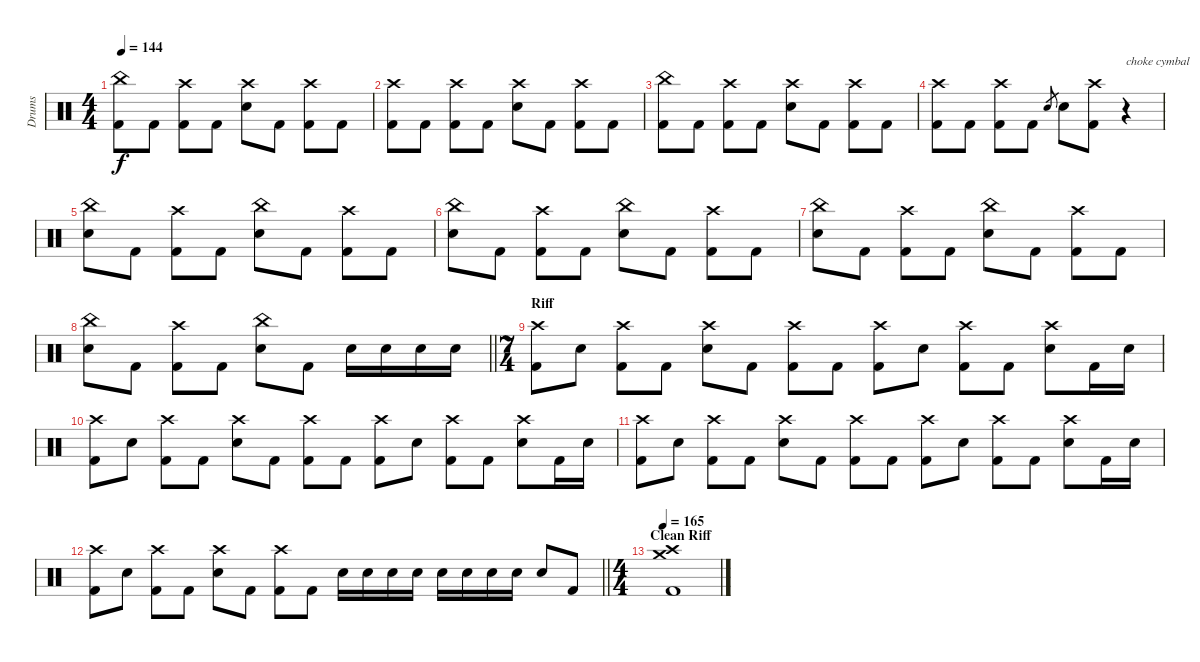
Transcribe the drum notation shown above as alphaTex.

\track ("Drums" "Drums") {instrument percussion}
\staff {score}
\articulation defaults
\ts (4 4)
\tempo 144
\clef neutral
\ks c
("China (hit)" "Kick (hit) 2").8{dy f} "Kick (hit) 2".8 ("Crash high (hit)" "Kick (hit) 2").8 "Kick (hit) 2".8 ("Crash high (hit)" "Electric Snare (hit)").8 "Kick (hit) 2".8 ("Crash high (hit)" "Kick (hit) 2").8 "Kick (hit) 2".8 |
("Crash high (hit)" "Kick (hit) 2").8 "Kick (hit) 2".8 ("Crash high (hit)" "Kick (hit) 2").8 "Kick (hit) 2".8 ("Crash high (hit)" "Electric Snare (hit)").8 "Kick (hit) 2".8 ("Crash high (hit)" "Kick (hit) 2").8 "Kick (hit) 2".8 |
("China (hit)" "Kick (hit) 2").8 "Kick (hit) 2".8 ("Crash high (hit)" "Kick (hit) 2").8 "Kick (hit) 2".8 ("Crash high (hit)" "Electric Snare (hit)").8 "Kick (hit) 2".8 ("Crash high (hit)" "Kick (hit) 2").8 "Kick (hit) 2".8 |
("Crash high (hit)" "Kick (hit) 2").8 "Kick (hit) 2".8 ("Crash high (hit)" "Kick (hit) 2").8 "Kick (hit) 2".8 "Electric Snare (hit)".8{gr} "Electric Snare (hit)".8 ("Crash high (hit)" "Kick (hit) 2").8 r.4{txt "choke cymbal" volume 0} |
("China (hit)" "Electric Snare (hit)").8{volume 14} "Kick (hit) 2".8 ("Crash high (hit)" "Kick (hit) 2").8 "Kick (hit) 2".8 ("China (hit)" "Electric Snare (hit)").8 "Kick (hit) 2".8 ("Crash high (hit)" "Kick (hit) 2").8 "Kick (hit) 2".8 |
("China (hit)" "Electric Snare (hit)").8 "Kick (hit) 2".8 ("Crash high (hit)" "Kick (hit) 2").8 "Kick (hit) 2".8 ("China (hit)" "Electric Snare (hit)").8 "Kick (hit) 2".8 ("Crash high (hit)" "Kick (hit) 2").8 "Kick (hit) 2".8 |
("China (hit)" "Electric Snare (hit)").8 "Kick (hit) 2".8 ("Crash high (hit)" "Kick (hit) 2").8 "Kick (hit) 2".8 ("China (hit)" "Electric Snare (hit)").8 "Kick (hit) 2".8 ("Crash high (hit)" "Kick (hit) 2").8 "Kick (hit) 2".8 |
\barLineRight lightlight
("China (hit)" "Electric Snare (hit)").8 "Kick (hit) 2".8 ("Crash high (hit)" "Kick (hit) 2").8 "Kick (hit) 2".8 ("China (hit)" "Electric Snare (hit)").8 "Kick (hit) 2".8 "Electric Snare (hit)".16 "Electric Snare (hit)".16 "Electric Snare (hit)".16 "Electric Snare (hit)".16 |
\ts (7 4)
\section ("" "Riff")
("Crash high (hit)" "Kick (hit) 2").8 "Electric Snare (hit)".8 ("Crash high (hit)" "Kick (hit) 2").8 "Kick (hit) 2".8 ("Crash high (hit)" "Electric Snare (hit)").8 "Kick (hit) 2".8 ("Crash high (hit)" "Kick (hit) 2").8 "Kick (hit) 2".8 ("Crash high (hit)" "Kick (hit) 2").8 "Electric Snare (hit)".8 ("Crash high (hit)" "Kick (hit) 2").8 "Kick (hit) 2".8 ("Crash high (hit)" "Electric Snare (hit)").8 "Kick (hit) 2".16 "Electric Snare (hit)".16 |
("Crash high (hit)" "Kick (hit) 2").8 "Electric Snare (hit)".8 ("Crash high (hit)" "Kick (hit) 2").8 "Kick (hit) 2".8 ("Crash high (hit)" "Electric Snare (hit)").8 "Kick (hit) 2".8 ("Crash high (hit)" "Kick (hit) 2").8 "Kick (hit) 2".8 ("Crash high (hit)" "Kick (hit) 2").8 "Electric Snare (hit)".8 ("Crash high (hit)" "Kick (hit) 2").8 "Kick (hit) 2".8 ("Crash high (hit)" "Electric Snare (hit)").8 "Kick (hit) 2".16 "Electric Snare (hit)".16 |
("Crash high (hit)" "Kick (hit) 2").8 "Electric Snare (hit)".8 ("Crash high (hit)" "Kick (hit) 2").8 "Kick (hit) 2".8 ("Crash high (hit)" "Electric Snare (hit)").8 "Kick (hit) 2".8 ("Crash high (hit)" "Kick (hit) 2").8 "Kick (hit) 2".8 ("Crash high (hit)" "Kick (hit) 2").8 "Electric Snare (hit)".8 ("Crash high (hit)" "Kick (hit) 2").8 "Kick (hit) 2".8 ("Crash high (hit)" "Electric Snare (hit)").8 "Kick (hit) 2".16 "Electric Snare (hit)".16 |
\barLineRight lightlight
("Crash high (hit)" "Kick (hit) 2").8 "Electric Snare (hit)".8 ("Crash high (hit)" "Kick (hit) 2").8 "Kick (hit) 2".8 ("Crash high (hit)" "Electric Snare (hit)").8 "Kick (hit) 2".8 ("Crash high (hit)" "Kick (hit) 2").8 "Kick (hit) 2".8 "Electric Snare (hit)".16 "Electric Snare (hit)".16 "Electric Snare (hit)".16 "Electric Snare (hit)".16 "Electric Snare (hit)".16 "Electric Snare (hit)".16 "Electric Snare (hit)".16 "Electric Snare (hit)".16 "Electric Snare (hit)".8 "Kick (hit) 2".8 |
\ts (4 4)
\section ("" "Clean Riff")
\tempo 165
("Crash high (hit)" "Crash medium (hit)" "Kick (hit) 2").1
